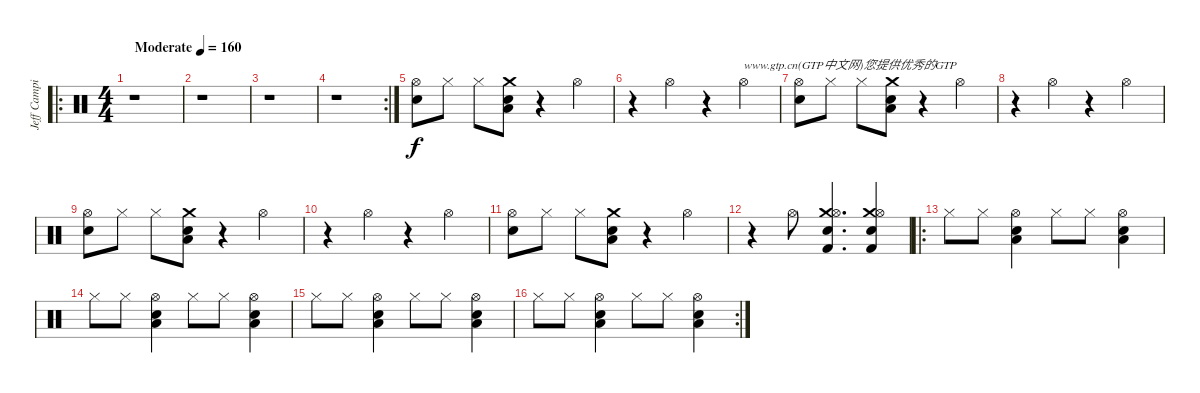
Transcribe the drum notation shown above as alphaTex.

\track ("Jeff Campitelli" "Jeff Campi") {instrument percussion}
\staff {score}
\articulation defaults
\ro
\ts (4 4)
\tempo (160 "Moderate")
\clef neutral
\ks c
r.1{dy f} |
r.1 |
r.1 |
\rc 2
r.1 |
("Snare (hit) 2" "Hi-Hat (open)").8 "Hi-Hat (closed)".8 "Hi-Hat (closed)".8 ("Crash medium (hit)" "Snare (hit) 2" "Low Floor Tom (hit)").8 r.4 "Hi-Hat (open)".4 |
r.4 "Hi-Hat (open)".4 r.4 "Hi-Hat (open)".4{txt "www.gtp.cn(GTP中文网)您提供优秀的GTP"} |
("Snare (hit) 2" "Hi-Hat (open)").8 "Hi-Hat (closed)".8 "Hi-Hat (closed)".8 ("Crash medium (hit)" "Snare (hit) 2" "Low Floor Tom (hit)").8 r.4 "Hi-Hat (open)".4 |
r.4 "Hi-Hat (open)".4 r.4 "Hi-Hat (open)".4 |
("Snare (hit) 2" "Hi-Hat (open)").8 "Hi-Hat (closed)".8 "Hi-Hat (closed)".8 ("Crash medium (hit)" "Snare (hit) 2" "Low Floor Tom (hit)").8 r.4 "Hi-Hat (open)".4 |
r.4 "Hi-Hat (open)".4 r.4 "Hi-Hat (open)".4 |
("Snare (hit) 2" "Hi-Hat (open)").8 "Hi-Hat (closed)".8 "Hi-Hat (closed)".8 ("Crash medium (hit)" "Snare (hit) 2" "Low Floor Tom (hit)").8 r.4 "Hi-Hat (open)".4 |
r.4 "Hi-Hat (open)".8 ("Crash medium (hit)" "Kick (hit) 2" "Hi-Hat (open)" "Snare (hit) 2").4{d} ("Crash medium (hit)" "Kick (hit) 2" "Hi-Hat (open)" "Snare (hit) 2").4 |
\ro "Hi-Hat (closed)".8 "Hi-Hat (closed)".8
("Low Floor Tom (hit)" "Snare (hit) 2" "Hi-Hat (open)").4 "Hi-Hat (closed)".8 "Hi-Hat (closed)".8 ("Low Floor Tom (hit)" "Snare (hit) 2" "Hi-Hat (open)").4 |
"Hi-Hat (closed)".8 "Hi-Hat (closed)".8 ("Low Floor Tom (hit)" "Snare (hit) 2" "Hi-Hat (open)").4 "Hi-Hat (closed)".8 "Hi-Hat (closed)".8 ("Low Floor Tom (hit)" "Snare (hit) 2" "Hi-Hat (open)").4 |
"Hi-Hat (closed)".8 "Hi-Hat (closed)".8 ("Low Floor Tom (hit)" "Snare (hit) 2" "Hi-Hat (open)").4 "Hi-Hat (closed)".8 "Hi-Hat (closed)".8 ("Low Floor Tom (hit)" "Snare (hit) 2" "Hi-Hat (open)").4 |
\rc 2 "Hi-Hat (closed)".8 "Hi-Hat (closed)".8
("Low Floor Tom (hit)" "Snare (hit) 2" "Hi-Hat (open)").4 "Hi-Hat (closed)".8 "Hi-Hat (closed)".8 ("Low Floor Tom (hit)" "Snare (hit) 2" "Hi-Hat (open)").4
